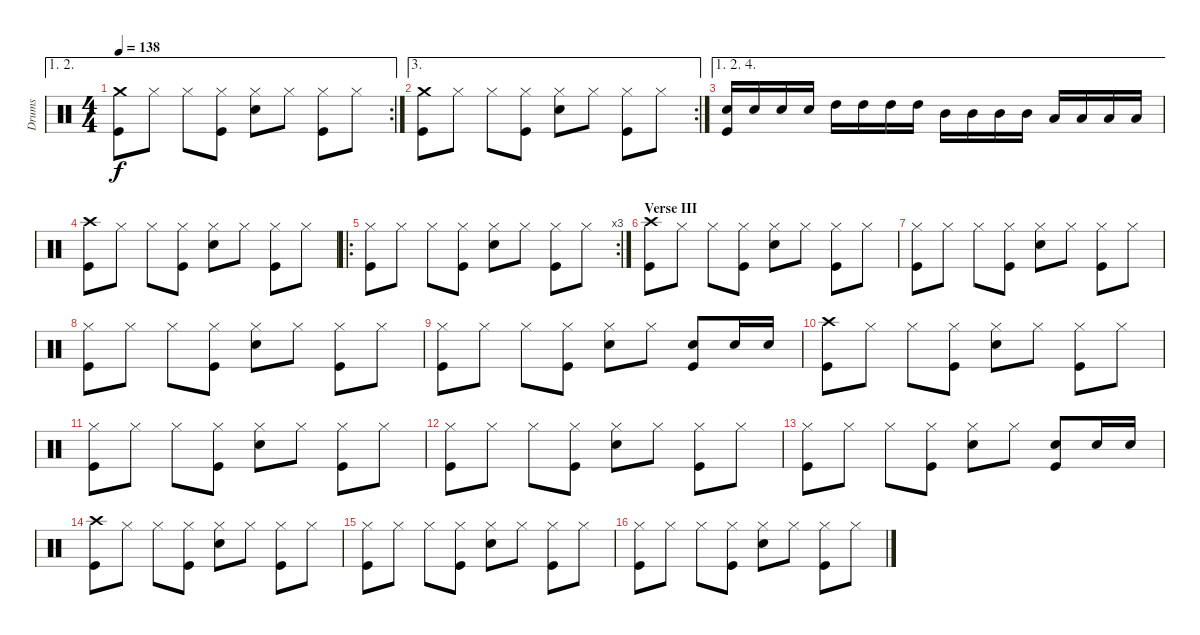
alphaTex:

\track ("Drums" "Drums") {instrument percussion}
\staff {score}
\articulation defaults
\ae (1 2)
\rc 2
\ts (4 4)
\tempo 138
\clef neutral
\ks c
("Crash medium (hit)" "Kick (hit)").8{dy f} "Hi-Hat (closed)".8 "Hi-Hat (closed)".8 ("Hi-Hat (closed)" "Kick (hit)").8 ("Hi-Hat (closed)" "Snare (hit) 2").8 "Hi-Hat (closed)".8 ("Hi-Hat (closed)" "Kick (hit)").8 "Hi-Hat (closed)".8 |
\ae 3
\rc 2
("Crash medium (hit)" "Kick (hit)").8 "Hi-Hat (closed)".8 "Hi-Hat (closed)".8 ("Hi-Hat (closed)" "Kick (hit)").8 ("Hi-Hat (closed)" "Snare (hit) 2").8 "Hi-Hat (closed)".8 ("Hi-Hat (closed)" "Kick (hit)").8 "Hi-Hat (closed)".8 |
\ae (1 2 4)
("Snare (hit) 2" "Kick (hit)").16 "Snare (hit) 2".16 "Snare (hit) 2".16 "Snare (hit) 2".16 "High Tom (hit)".16 "High Tom (hit)".16 "High Tom (hit)".16 "High Tom (hit)".16 "Mid Tom (hit)".16 "Mid Tom (hit)".16 "Mid Tom (hit)".16 "Mid Tom (hit)".16 "Low Tom (hit)".16 "Low Tom (hit)".16 "Low Tom (hit)".16 "Low Tom (hit)".16 |
("Crash high (hit)" "Kick (hit)").8 "Hi-Hat (closed)".8 "Hi-Hat (closed)".8 ("Hi-Hat (closed)" "Kick (hit)").8 ("Hi-Hat (closed)" "Snare (hit) 2").8 "Hi-Hat (closed)".8 ("Hi-Hat (closed)" "Kick (hit)").8 "Hi-Hat (closed)".8 |
\ro
\rc 3
("Hi-Hat (closed)" "Kick (hit)").8 "Hi-Hat (closed)".8 "Hi-Hat (closed)".8 ("Hi-Hat (closed)" "Kick (hit)").8 ("Hi-Hat (closed)" "Snare (hit) 2").8 "Hi-Hat (closed)".8 ("Hi-Hat (closed)" "Kick (hit)").8 "Hi-Hat (closed)".8 |
\section ("" "Verse III")
("Crash high (hit)" "Kick (hit)").8 "Hi-Hat (closed)".8 "Hi-Hat (closed)".8 ("Hi-Hat (closed)" "Kick (hit)").8 ("Hi-Hat (closed)" "Snare (hit) 2").8 "Hi-Hat (closed)".8 ("Hi-Hat (closed)" "Kick (hit)").8 "Hi-Hat (closed)".8 |
("Hi-Hat (closed)" "Kick (hit)").8 "Hi-Hat (closed)".8 "Hi-Hat (closed)".8 ("Hi-Hat (closed)" "Kick (hit)").8 ("Hi-Hat (closed)" "Snare (hit) 2").8 "Hi-Hat (closed)".8 ("Hi-Hat (closed)" "Kick (hit)").8 "Hi-Hat (closed)".8 |
("Hi-Hat (closed)" "Kick (hit)").8 "Hi-Hat (closed)".8 "Hi-Hat (closed)".8 ("Hi-Hat (closed)" "Kick (hit)").8 ("Hi-Hat (closed)" "Snare (hit) 2").8 "Hi-Hat (closed)".8 ("Hi-Hat (closed)" "Kick (hit)").8 "Hi-Hat (closed)".8 |
("Hi-Hat (closed)" "Kick (hit)").8 "Hi-Hat (closed)".8 "Hi-Hat (closed)".8 ("Hi-Hat (closed)" "Kick (hit)").8 ("Hi-Hat (closed)" "Snare (hit) 2").8 "Hi-Hat (closed)".8 ("Snare (hit) 2" "Kick (hit)").8 "Snare (hit) 2".16 "Snare (hit) 2".16 |
("Crash high (hit)" "Kick (hit)").8 "Hi-Hat (closed)".8 "Hi-Hat (closed)".8 ("Hi-Hat (closed)" "Kick (hit)").8 ("Hi-Hat (closed)" "Snare (hit) 2").8 "Hi-Hat (closed)".8 ("Hi-Hat (closed)" "Kick (hit)").8 "Hi-Hat (closed)".8 |
("Hi-Hat (closed)" "Kick (hit)").8 "Hi-Hat (closed)".8 "Hi-Hat (closed)".8 ("Hi-Hat (closed)" "Kick (hit)").8 ("Hi-Hat (closed)" "Snare (hit) 2").8 "Hi-Hat (closed)".8 ("Hi-Hat (closed)" "Kick (hit)").8 "Hi-Hat (closed)".8 |
("Hi-Hat (closed)" "Kick (hit)").8 "Hi-Hat (closed)".8 "Hi-Hat (closed)".8 ("Hi-Hat (closed)" "Kick (hit)").8 ("Hi-Hat (closed)" "Snare (hit) 2").8 "Hi-Hat (closed)".8 ("Hi-Hat (closed)" "Kick (hit)").8 "Hi-Hat (closed)".8 |
("Hi-Hat (closed)" "Kick (hit)").8 "Hi-Hat (closed)".8 "Hi-Hat (closed)".8 ("Hi-Hat (closed)" "Kick (hit)").8 ("Hi-Hat (closed)" "Snare (hit) 2").8 "Hi-Hat (closed)".8 ("Snare (hit) 2" "Kick (hit)").8 "Snare (hit) 2".16 "Snare (hit) 2".16 |
("Crash high (hit)" "Kick (hit)").8 "Hi-Hat (closed)".8 "Hi-Hat (closed)".8 ("Hi-Hat (closed)" "Kick (hit)").8 ("Hi-Hat (closed)" "Snare (hit) 2").8 "Hi-Hat (closed)".8 ("Hi-Hat (closed)" "Kick (hit)").8 "Hi-Hat (closed)".8 |
("Hi-Hat (closed)" "Kick (hit)").8 "Hi-Hat (closed)".8 "Hi-Hat (closed)".8 ("Hi-Hat (closed)" "Kick (hit)").8 ("Hi-Hat (closed)" "Snare (hit) 2").8 "Hi-Hat (closed)".8 ("Hi-Hat (closed)" "Kick (hit)").8 "Hi-Hat (closed)".8 |
("Hi-Hat (closed)" "Kick (hit)").8 "Hi-Hat (closed)".8 "Hi-Hat (closed)".8 ("Hi-Hat (closed)" "Kick (hit)").8 ("Hi-Hat (closed)" "Snare (hit) 2").8 "Hi-Hat (closed)".8 ("Hi-Hat (closed)" "Kick (hit)").8 "Hi-Hat (closed)".8
